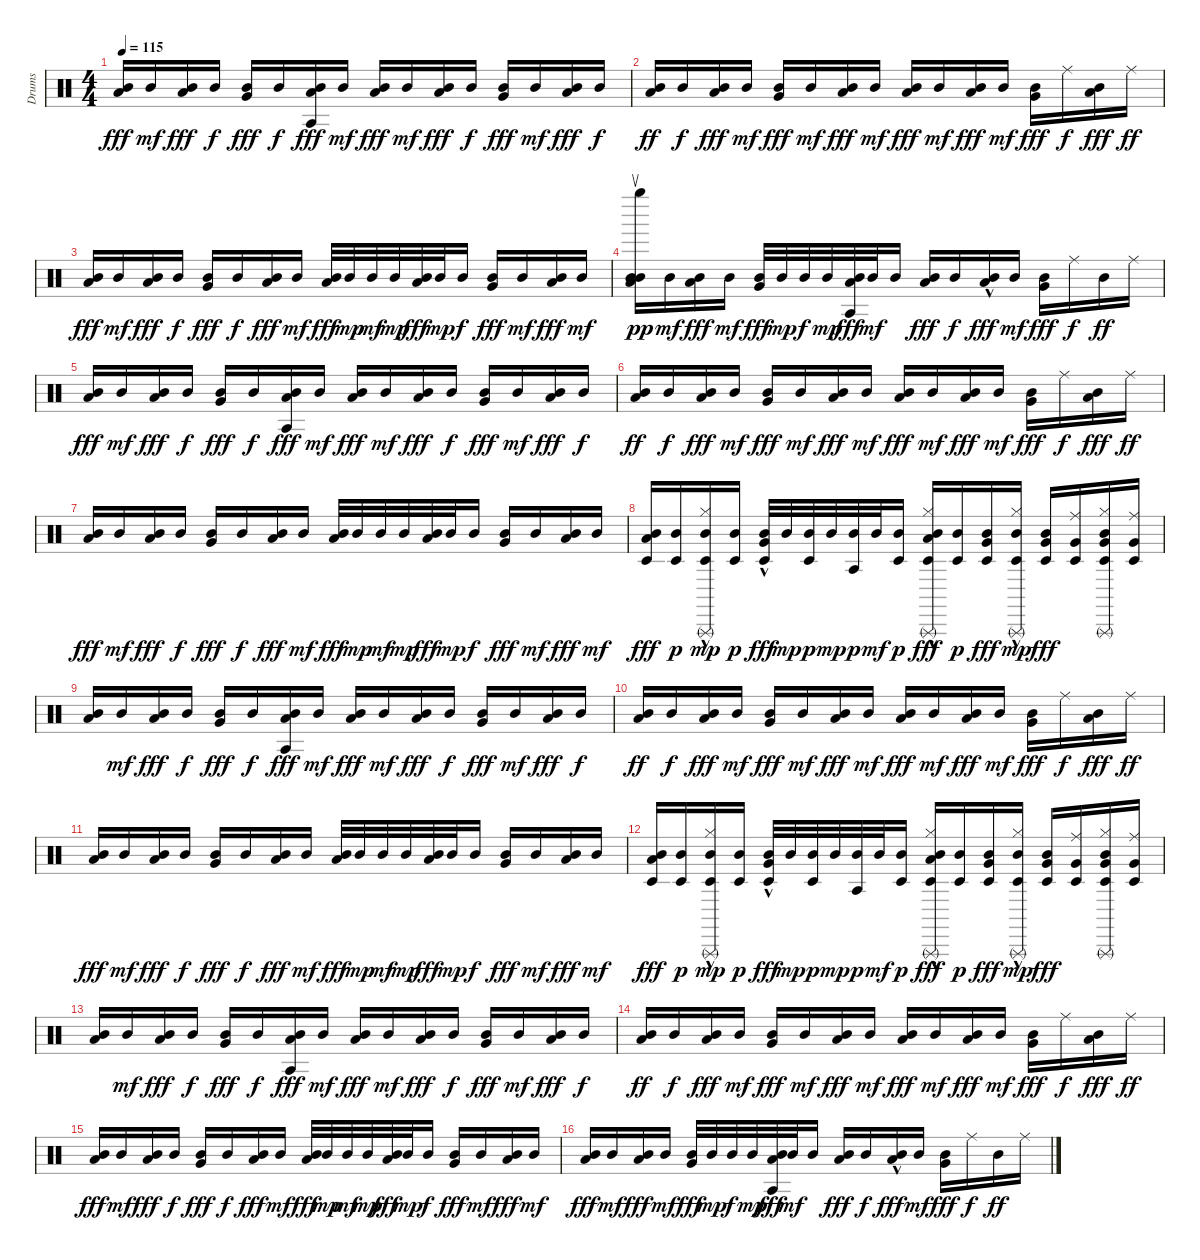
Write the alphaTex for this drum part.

\track ("Drums" "Drums") {instrument percussion}
\staff {score}
\articulation defaults
\ts (4 4)
\tempo 115
\clef neutral
\ks c
("Mid Tom (hit)" "Low Floor Tom (hit)").16{dy fff} "Mid Tom (hit)".16{dy mf} ("Mid Tom (hit)" "Low Floor Tom (hit)").16{dy fff} "Mid Tom (hit)".16{dy f} ("Mid Tom (hit)" "Very Low Tom (hit)").16{dy fff} "Mid Tom (hit)".16{dy f} ("Mid Tom (hit)" "Agogo tow (hit)" "Low Floor Tom (hit)").16{dy fff} "Mid Tom (hit)".16{dy mf} ("Mid Tom (hit)" "Low Floor Tom (hit)").16{dy fff} "Mid Tom (hit)".16{dy mf} ("Mid Tom (hit)" "Low Floor Tom (hit)").16{dy fff} "Mid Tom (hit)".16{dy f} ("Mid Tom (hit)" "Very Low Tom (hit)").16{dy fff} "Mid Tom (hit)".16{dy mf} ("Mid Tom (hit)" "Low Floor Tom (hit)").16{dy fff} "Mid Tom (hit)".16{dy f} |
("Mid Tom (hit)" "Low Floor Tom (hit)").16{dy ff} "Mid Tom (hit)".16{dy f} ("Mid Tom (hit)" "Low Floor Tom (hit)").16{dy fff} "Mid Tom (hit)".16{dy mf} ("Mid Tom (hit)" "Very Low Tom (hit)").16{dy fff} "Mid Tom (hit)".16{dy mf} ("Mid Tom (hit)" "Low Floor Tom (hit)").16{dy fff} "Mid Tom (hit)".16{dy mf} ("Mid Tom (hit)" "Low Floor Tom (hit)").16{dy fff} "Mid Tom (hit)".16{dy mf} ("Mid Tom (hit)" "Low Floor Tom (hit)").16{dy fff} "Mid Tom (hit)".16{dy mf} ("Mid Tom (hit)" "Very Low Tom (hit)").16{dy fff} "Ride (middle)".16{dy f} ("Mid Tom (hit)" "Low Floor Tom (hit)").16{dy fff} "Ride (middle)".16{dy ff} |
("Mid Tom (hit)" "Low Floor Tom (hit)").16{dy fff} "Mid Tom (hit)".16{dy mf} ("Mid Tom (hit)" "Low Floor Tom (hit)").16{dy fff} "Mid Tom (hit)".16{dy f} ("Mid Tom (hit)" "Very Low Tom (hit)").16{dy fff} "Mid Tom (hit)".16{dy f} ("Mid Tom (hit)" "Low Floor Tom (hit)").16{dy fff} "Mid Tom (hit)".16{dy mf} ("Mid Tom (hit)" "Low Floor Tom (hit)").32{dy fff} "Mid Tom (hit)".32{dy mp} "Mid Tom (hit)".32{dy mf} "Mid Tom (hit)".32{dy mp} ("Mid Tom (hit)" "Low Floor Tom (hit)").32{dy fff} "Mid Tom (hit)".32{dy mp} "Mid Tom (hit)".16{dy f} ("Mid Tom (hit)" "Very Low Tom (hit)").16{dy fff} "Mid Tom (hit)".16{dy mf} ("Mid Tom (hit)" "Low Floor Tom (hit)").16{dy fff} "Mid Tom (hit)".16{dy mf} |
("Low Floor Tom (hit)" "Mid Tom (hit)" "Mid Tom (hit)" "Right Maraca (return)").16{dy pp} "Mid Tom (hit)".16{dy mf} ("Mid Tom (hit)" "Low Floor Tom (hit)").16{dy fff} "Mid Tom (hit)".16{dy mf} ("Mid Tom (hit)" "Very Low Tom (hit)").32{dy fff} "Mid Tom (hit)".32{dy mp} "Mid Tom (hit)".32{dy f} "Mid Tom (hit)".32{dy mp} ("Mid Tom (hit)" "Agogo tow (hit)" "Low Floor Tom (hit)").32{dy fff} "Mid Tom (hit)".32{dy mf} "Mid Tom (hit)".16 ("Mid Tom (hit)" "Low Floor Tom (hit)").16{dy fff} "Mid Tom (hit)".16{dy f} ("Mid Tom (hit)" "Low Floor Tom (hit)"{hac}).16{dy fff} "Mid Tom (hit)".16{dy mf} ("Mid Tom (hit)" "Very Low Tom (hit)").16{dy fff} "Ride (middle)".16{dy f} "Mid Tom (hit)".16{dy ff} "Ride (middle)".16 |
("Mid Tom (hit)" "Low Floor Tom (hit)").16{dy fff} "Mid Tom (hit)".16{dy mf} ("Mid Tom (hit)" "Low Floor Tom (hit)").16{dy fff} "Mid Tom (hit)".16{dy f} ("Mid Tom (hit)" "Very Low Tom (hit)").16{dy fff} "Mid Tom (hit)".16{dy f} ("Mid Tom (hit)" "Agogo tow (hit)" "Low Floor Tom (hit)").16{dy fff} "Mid Tom (hit)".16{dy mf} ("Mid Tom (hit)" "Low Floor Tom (hit)").16{dy fff} "Mid Tom (hit)".16{dy mf} ("Mid Tom (hit)" "Low Floor Tom (hit)").16{dy fff} "Mid Tom (hit)".16{dy f} ("Mid Tom (hit)" "Very Low Tom (hit)").16{dy fff} "Mid Tom (hit)".16{dy mf} ("Mid Tom (hit)" "Low Floor Tom (hit)").16{dy fff} "Mid Tom (hit)".16{dy f} |
("Mid Tom (hit)" "Low Floor Tom (hit)").16{dy ff} "Mid Tom (hit)".16{dy f} ("Mid Tom (hit)" "Low Floor Tom (hit)").16{dy fff} "Mid Tom (hit)".16{dy mf} ("Mid Tom (hit)" "Very Low Tom (hit)").16{dy fff} "Mid Tom (hit)".16{dy mf} ("Mid Tom (hit)" "Low Floor Tom (hit)").16{dy fff} "Mid Tom (hit)".16{dy mf} ("Mid Tom (hit)" "Low Floor Tom (hit)").16{dy fff} "Mid Tom (hit)".16{dy mf} ("Mid Tom (hit)" "Low Floor Tom (hit)").16{dy fff} "Mid Tom (hit)".16{dy mf} ("Mid Tom (hit)" "Very Low Tom (hit)").16{dy fff} "Ride (middle)".16{dy f} ("Mid Tom (hit)" "Low Floor Tom (hit)").16{dy fff} "Ride (middle)".16{dy ff} |
("Mid Tom (hit)" "Low Floor Tom (hit)").16{dy fff} "Mid Tom (hit)".16{dy mf} ("Mid Tom (hit)" "Low Floor Tom (hit)").16{dy fff} "Mid Tom (hit)".16{dy f} ("Mid Tom (hit)" "Very Low Tom (hit)").16{dy fff} "Mid Tom (hit)".16{dy f} ("Mid Tom (hit)" "Low Floor Tom (hit)").16{dy fff} "Mid Tom (hit)".16{dy mf} ("Mid Tom (hit)" "Low Floor Tom (hit)").32{dy fff} "Mid Tom (hit)".32{dy mp} "Mid Tom (hit)".32{dy mf} "Mid Tom (hit)".32{dy mp} ("Mid Tom (hit)" "Low Floor Tom (hit)").32{dy fff} "Mid Tom (hit)".32{dy mp} "Mid Tom (hit)".16{dy f} ("Mid Tom (hit)" "Very Low Tom (hit)").16{dy fff} "Mid Tom (hit)".16{dy mf} ("Mid Tom (hit)" "Low Floor Tom (hit)").16{dy fff} "Mid Tom (hit)".16{dy mf} |
("Mid Tom (hit)" "Timbale low (hit)" "Low Floor Tom (hit)").16{dy fff} ("Mid Tom (hit)" "Timbale low (hit)").16{dy p} ("Mid Tom (hit)" "Timbale low (hit)" "Triangle (rnute)"{hac} "Hi-Hat (closed)"{hac}).16{dy mp} ("Mid Tom (hit)" "Timbale low (hit)").16{dy p} ("Mid Tom (hit)" "Timbale low (hit)" "Very Low Tom (hit)"{hac}).32{dy fff} "Mid Tom (hit)".32{dy mp} ("Mid Tom (hit)" "Timbale low (hit)").32{dy p} "Mid Tom (hit)".32{dy mp} ("Mid Tom (hit)" "Agogo tow (hit)").32{dy p} "Mid Tom (hit)".32{dy mf} ("Mid Tom (hit)" "Timbale low (hit)").16{dy p} ("Mid Tom (hit)" "Timbale low (hit)" "Triangle (rnute)"{hac} "Hi-Hat (closed)"{hac} "Low Floor Tom (hit)").16{dy fff} ("Mid Tom (hit)" "Timbale low (hit)").16{dy p} ("Mid Tom (hit)" "Timbale low (hit)" "Very Low Tom (hit)").16{dy fff} ("Mid Tom (hit)" "Timbale low (hit)" "Triangle (rnute)"{hac} "Hi-Hat (closed)"{hac}).16{dy mp} ("Mid Tom (hit)" "Timbale low (hit)" "Very Low Tom (hit)").16{dy fff} ("Ride (middle)" "Timbale low (hit)" "Very Low Tom (hit)").16 ("Mid Tom (hit)" "Timbale low (hit)" "Triangle (rnute)" "Hi-Hat (closed)" "Very Low Tom (hit)").16 ("Ride (middle)" "Timbale low (hit)" "Very Low Tom (hit)").16 |
("Mid Tom (hit)" "Low Floor Tom (hit)").16 "Mid Tom (hit)".16{dy mf} ("Mid Tom (hit)" "Low Floor Tom (hit)").16{dy fff} "Mid Tom (hit)".16{dy f} ("Mid Tom (hit)" "Very Low Tom (hit)").16{dy fff} "Mid Tom (hit)".16{dy f} ("Mid Tom (hit)" "Agogo tow (hit)" "Low Floor Tom (hit)").16{dy fff} "Mid Tom (hit)".16{dy mf} ("Mid Tom (hit)" "Low Floor Tom (hit)").16{dy fff} "Mid Tom (hit)".16{dy mf} ("Mid Tom (hit)" "Low Floor Tom (hit)").16{dy fff} "Mid Tom (hit)".16{dy f} ("Mid Tom (hit)" "Very Low Tom (hit)").16{dy fff} "Mid Tom (hit)".16{dy mf} ("Mid Tom (hit)" "Low Floor Tom (hit)").16{dy fff} "Mid Tom (hit)".16{dy f} |
("Mid Tom (hit)" "Low Floor Tom (hit)").16{dy ff} "Mid Tom (hit)".16{dy f} ("Mid Tom (hit)" "Low Floor Tom (hit)").16{dy fff} "Mid Tom (hit)".16{dy mf} ("Mid Tom (hit)" "Very Low Tom (hit)").16{dy fff} "Mid Tom (hit)".16{dy mf} ("Mid Tom (hit)" "Low Floor Tom (hit)").16{dy fff} "Mid Tom (hit)".16{dy mf} ("Mid Tom (hit)" "Low Floor Tom (hit)").16{dy fff} "Mid Tom (hit)".16{dy mf} ("Mid Tom (hit)" "Low Floor Tom (hit)").16{dy fff} "Mid Tom (hit)".16{dy mf} ("Mid Tom (hit)" "Very Low Tom (hit)").16{dy fff} "Ride (middle)".16{dy f} ("Mid Tom (hit)" "Low Floor Tom (hit)").16{dy fff} "Ride (middle)".16{dy ff} |
("Mid Tom (hit)" "Low Floor Tom (hit)").16{dy fff} "Mid Tom (hit)".16{dy mf} ("Mid Tom (hit)" "Low Floor Tom (hit)").16{dy fff} "Mid Tom (hit)".16{dy f} ("Mid Tom (hit)" "Very Low Tom (hit)").16{dy fff} "Mid Tom (hit)".16{dy f} ("Mid Tom (hit)" "Low Floor Tom (hit)").16{dy fff} "Mid Tom (hit)".16{dy mf} ("Mid Tom (hit)" "Low Floor Tom (hit)").32{dy fff} "Mid Tom (hit)".32{dy mp} "Mid Tom (hit)".32{dy mf} "Mid Tom (hit)".32{dy mp} ("Mid Tom (hit)" "Low Floor Tom (hit)").32{dy fff} "Mid Tom (hit)".32{dy mp} "Mid Tom (hit)".16{dy f} ("Mid Tom (hit)" "Very Low Tom (hit)").16{dy fff} "Mid Tom (hit)".16{dy mf} ("Mid Tom (hit)" "Low Floor Tom (hit)").16{dy fff} "Mid Tom (hit)".16{dy mf} |
("Mid Tom (hit)" "Timbale low (hit)" "Low Floor Tom (hit)").16{dy fff} ("Mid Tom (hit)" "Timbale low (hit)").16{dy p} ("Mid Tom (hit)" "Timbale low (hit)" "Triangle (rnute)"{hac} "Hi-Hat (closed)"{hac}).16{dy mp} ("Mid Tom (hit)" "Timbale low (hit)").16{dy p} ("Mid Tom (hit)" "Timbale low (hit)" "Very Low Tom (hit)"{hac}).32{dy fff} "Mid Tom (hit)".32{dy mp} ("Mid Tom (hit)" "Timbale low (hit)").32{dy p} "Mid Tom (hit)".32{dy mp} ("Mid Tom (hit)" "Agogo tow (hit)").32{dy p} "Mid Tom (hit)".32{dy mf} ("Mid Tom (hit)" "Timbale low (hit)").16{dy p} ("Mid Tom (hit)" "Timbale low (hit)" "Triangle (rnute)"{hac} "Hi-Hat (closed)"{hac} "Low Floor Tom (hit)").16{dy fff} ("Mid Tom (hit)" "Timbale low (hit)").16{dy p} ("Mid Tom (hit)" "Timbale low (hit)" "Very Low Tom (hit)").16{dy fff} ("Mid Tom (hit)" "Timbale low (hit)" "Triangle (rnute)"{hac} "Hi-Hat (closed)"{hac}).16{dy mp} ("Mid Tom (hit)" "Timbale low (hit)" "Very Low Tom (hit)").16{dy fff} ("Ride (middle)" "Timbale low (hit)" "Very Low Tom (hit)").16 ("Mid Tom (hit)" "Timbale low (hit)" "Triangle (rnute)" "Hi-Hat (closed)" "Very Low Tom (hit)").16 ("Ride (middle)" "Timbale low (hit)" "Very Low Tom (hit)").16 |
("Mid Tom (hit)" "Low Floor Tom (hit)").16 "Mid Tom (hit)".16{dy mf} ("Mid Tom (hit)" "Low Floor Tom (hit)").16{dy fff} "Mid Tom (hit)".16{dy f} ("Mid Tom (hit)" "Very Low Tom (hit)").16{dy fff} "Mid Tom (hit)".16{dy f} ("Mid Tom (hit)" "Agogo tow (hit)" "Low Floor Tom (hit)").16{dy fff} "Mid Tom (hit)".16{dy mf} ("Mid Tom (hit)" "Low Floor Tom (hit)").16{dy fff} "Mid Tom (hit)".16{dy mf} ("Mid Tom (hit)" "Low Floor Tom (hit)").16{dy fff} "Mid Tom (hit)".16{dy f} ("Mid Tom (hit)" "Very Low Tom (hit)").16{dy fff} "Mid Tom (hit)".16{dy mf} ("Mid Tom (hit)" "Low Floor Tom (hit)").16{dy fff} "Mid Tom (hit)".16{dy f} |
("Mid Tom (hit)" "Low Floor Tom (hit)").16{dy ff} "Mid Tom (hit)".16{dy f} ("Mid Tom (hit)" "Low Floor Tom (hit)").16{dy fff} "Mid Tom (hit)".16{dy mf} ("Mid Tom (hit)" "Very Low Tom (hit)").16{dy fff} "Mid Tom (hit)".16{dy mf} ("Mid Tom (hit)" "Low Floor Tom (hit)").16{dy fff} "Mid Tom (hit)".16{dy mf} ("Mid Tom (hit)" "Low Floor Tom (hit)").16{dy fff} "Mid Tom (hit)".16{dy mf} ("Mid Tom (hit)" "Low Floor Tom (hit)").16{dy fff} "Mid Tom (hit)".16{dy mf} ("Mid Tom (hit)" "Very Low Tom (hit)").16{dy fff} "Ride (middle)".16{dy f} ("Mid Tom (hit)" "Low Floor Tom (hit)").16{dy fff} "Ride (middle)".16{dy ff} |
("Mid Tom (hit)" "Low Floor Tom (hit)").16{dy fff} "Mid Tom (hit)".16{dy mf} ("Mid Tom (hit)" "Low Floor Tom (hit)").16{dy fff} "Mid Tom (hit)".16{dy f} ("Mid Tom (hit)" "Very Low Tom (hit)").16{dy fff} "Mid Tom (hit)".16{dy f} ("Mid Tom (hit)" "Low Floor Tom (hit)").16{dy fff} "Mid Tom (hit)".16{dy mf} ("Mid Tom (hit)" "Low Floor Tom (hit)").32{dy fff} "Mid Tom (hit)".32{dy mp} "Mid Tom (hit)".32{dy mf} "Mid Tom (hit)".32{dy mp} ("Mid Tom (hit)" "Low Floor Tom (hit)").32{dy fff} "Mid Tom (hit)".32{dy mp} "Mid Tom (hit)".16{dy f} ("Mid Tom (hit)" "Very Low Tom (hit)").16{dy fff} "Mid Tom (hit)".16{dy mf} ("Mid Tom (hit)" "Low Floor Tom (hit)").16{dy fff} "Mid Tom (hit)".16{dy mf} |
("Mid Tom (hit)" "Low Floor Tom (hit)").16{dy fff} "Mid Tom (hit)".16{dy mf} ("Mid Tom (hit)" "Low Floor Tom (hit)").16{dy fff} "Mid Tom (hit)".16{dy mf} ("Mid Tom (hit)" "Very Low Tom (hit)").32{dy fff} "Mid Tom (hit)".32{dy mp} "Mid Tom (hit)".32{dy f} "Mid Tom (hit)".32{dy mp} ("Mid Tom (hit)" "Agogo tow (hit)" "Low Floor Tom (hit)").32{dy fff} "Mid Tom (hit)".32{dy mf} "Mid Tom (hit)".16 ("Mid Tom (hit)" "Low Floor Tom (hit)").16{dy fff} "Mid Tom (hit)".16{dy f} ("Mid Tom (hit)" "Low Floor Tom (hit)"{hac}).16{dy fff} "Mid Tom (hit)".16{dy mf} ("Mid Tom (hit)" "Very Low Tom (hit)").16{dy fff} "Ride (middle)".16{dy f} "Mid Tom (hit)".16{dy ff} "Ride (middle)".16
